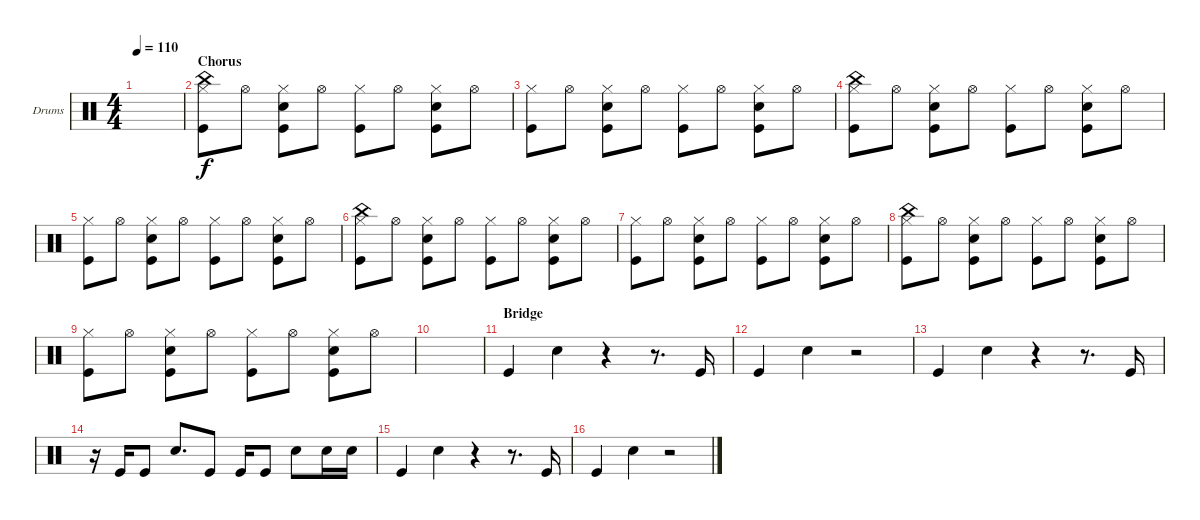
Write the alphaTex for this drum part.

\bracketExtendMode groupsimilarinstruments
\firstSystemTrackNameOrientation horizontal
\otherSystemsTrackNameOrientation horizontal
\track ("Drumkit" "Drums") {instrument percussion}
\staff {score}
\articulation defaults
\ts (4 4)
\tempo 110
\clef neutral
\ks c
|
\section ("" "Chorus")
("Kick (hit)" "Hi-Hat (closed)" "China (hit)").8 "Hi-Hat (open)".8 ("Snare (hit) 2" "Kick (hit)" "Hi-Hat (closed)").8 "Hi-Hat (open)".8 ("Kick (hit)" "Hi-Hat (closed)").8 "Hi-Hat (open)".8 ("Snare (hit) 2" "Kick (hit)" "Hi-Hat (closed)").8 "Hi-Hat (open)".8 |
("Kick (hit)" "Hi-Hat (closed)").8 "Hi-Hat (open)".8 ("Snare (hit) 2" "Kick (hit)" "Hi-Hat (closed)").8 "Hi-Hat (open)".8 ("Kick (hit)" "Hi-Hat (closed)").8 "Hi-Hat (open)".8 ("Snare (hit) 2" "Kick (hit)" "Hi-Hat (closed)").8 "Hi-Hat (open)".8 |
("Kick (hit)" "Hi-Hat (closed)" "China (hit)").8 "Hi-Hat (open)".8 ("Snare (hit) 2" "Kick (hit)" "Hi-Hat (closed)").8 "Hi-Hat (open)".8 ("Kick (hit)" "Hi-Hat (closed)").8 "Hi-Hat (open)".8 ("Snare (hit) 2" "Kick (hit)" "Hi-Hat (closed)").8 "Hi-Hat (open)".8 |
("Kick (hit)" "Hi-Hat (closed)").8 "Hi-Hat (open)".8 ("Snare (hit) 2" "Kick (hit)" "Hi-Hat (closed)").8 "Hi-Hat (open)".8 ("Kick (hit)" "Hi-Hat (closed)").8 "Hi-Hat (open)".8 ("Snare (hit) 2" "Kick (hit)" "Hi-Hat (closed)").8 "Hi-Hat (open)".8 |
("Kick (hit)" "Hi-Hat (closed)" "China (hit)").8 "Hi-Hat (open)".8 ("Snare (hit) 2" "Kick (hit)" "Hi-Hat (closed)").8 "Hi-Hat (open)".8 ("Kick (hit)" "Hi-Hat (closed)").8 "Hi-Hat (open)".8 ("Snare (hit) 2" "Kick (hit)" "Hi-Hat (closed)").8 "Hi-Hat (open)".8 |
("Kick (hit)" "Hi-Hat (closed)").8 "Hi-Hat (open)".8 ("Snare (hit) 2" "Kick (hit)" "Hi-Hat (closed)").8 "Hi-Hat (open)".8 ("Kick (hit)" "Hi-Hat (closed)").8 "Hi-Hat (open)".8 ("Snare (hit) 2" "Kick (hit)" "Hi-Hat (closed)").8 "Hi-Hat (open)".8 |
("Kick (hit)" "Hi-Hat (closed)" "China (hit)").8 "Hi-Hat (open)".8 ("Snare (hit) 2" "Kick (hit)" "Hi-Hat (closed)").8 "Hi-Hat (open)".8 ("Kick (hit)" "Hi-Hat (closed)").8 "Hi-Hat (open)".8 ("Snare (hit) 2" "Kick (hit)" "Hi-Hat (closed)").8 "Hi-Hat (open)".8 |
("Kick (hit)" "Hi-Hat (closed)").8 "Hi-Hat (open)".8 ("Snare (hit) 2" "Kick (hit)" "Hi-Hat (closed)").8 "Hi-Hat (open)".8 ("Kick (hit)" "Hi-Hat (closed)").8 "Hi-Hat (open)".8 ("Snare (hit) 2" "Kick (hit)" "Hi-Hat (closed)").8 "Hi-Hat (open)".8 |
|
\section ("" "Bridge")
"Kick (hit)".4 "Snare (hit) 2".4 r.4 r.8{d} "Kick (hit)".16 |
"Kick (hit)".4 "Snare (hit) 2".4 r.2 |
"Kick (hit)".4 "Snare (hit) 2".4 r.4 r.8{d} "Kick (hit)".16 |
r.16 "Kick (hit)".16 "Kick (hit)".8 "Snare (hit) 2".8{d} "Kick (hit)".8 "Kick (hit)".16 "Kick (hit)".8 "Snare (hit) 2".8 "Snare (hit) 2".16 "Snare (hit) 2".16 |
"Kick (hit)".4 "Snare (hit) 2".4 r.4 r.8{d} "Kick (hit)".16 |
"Kick (hit)".4 "Snare (hit) 2".4 r.2
